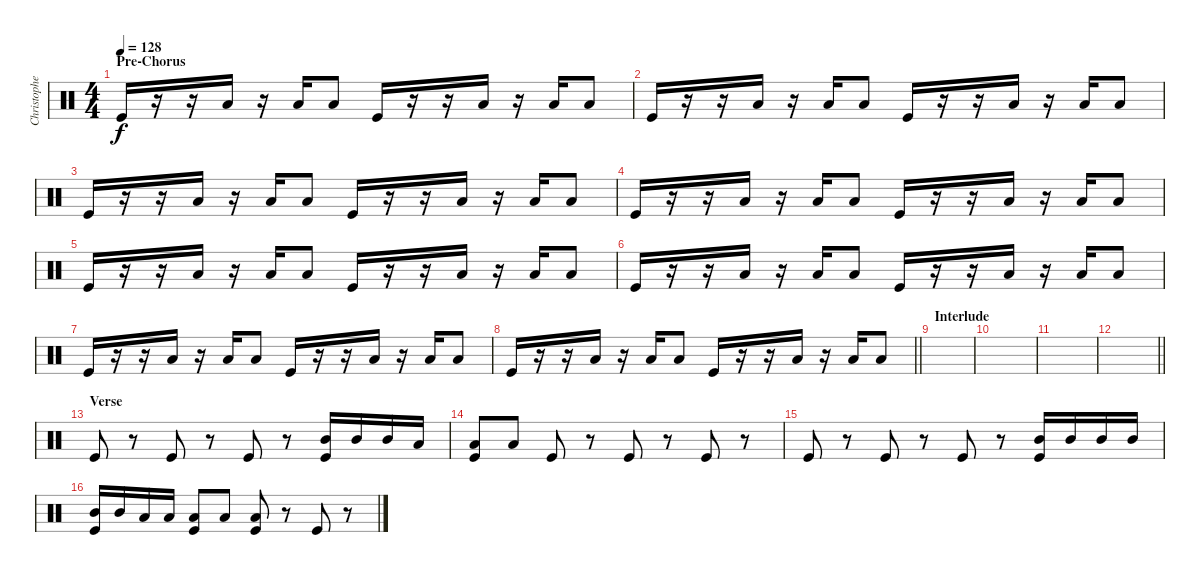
\track ("Christopher - Drums" "Christophe") {instrument percussion}
\staff {score}
\articulation defaults
\ts (4 4)
\section ("" "Pre-Chorus")
\tempo 128
\clef neutral
\ks c "Kick (hit)".16{dy f}
r.16 r.16 "Low Tom (hit)".16 r.16 "Low Tom (hit)".16 "Low Floor Tom (hit)".8 "Kick (hit)".16 r.16 r.16 "Low Tom (hit)".16 r.16 "Low Tom (hit)".16 "Low Floor Tom (hit)".8 |
"Kick (hit)".16 r.16 r.16 "Low Tom (hit)".16 r.16 "Low Tom (hit)".16 "Low Floor Tom (hit)".8 "Kick (hit)".16 r.16 r.16 "Low Tom (hit)".16 r.16 "Low Tom (hit)".16 "Low Floor Tom (hit)".8 |
"Kick (hit)".16 r.16 r.16 "Low Tom (hit)".16 r.16 "Low Tom (hit)".16 "Low Floor Tom (hit)".8 "Kick (hit)".16 r.16 r.16 "Low Tom (hit)".16 r.16 "Low Tom (hit)".16 "Low Floor Tom (hit)".8 |
"Kick (hit)".16 r.16 r.16 "Low Tom (hit)".16 r.16 "Low Tom (hit)".16 "Low Floor Tom (hit)".8 "Kick (hit)".16 r.16 r.16 "Low Tom (hit)".16 r.16 "Low Tom (hit)".16 "Low Floor Tom (hit)".8 |
"Kick (hit)".16 r.16 r.16 "Low Tom (hit)".16 r.16 "Low Tom (hit)".16 "Low Floor Tom (hit)".8 "Kick (hit)".16 r.16 r.16 "Low Tom (hit)".16 r.16 "Low Tom (hit)".16 "Low Floor Tom (hit)".8 |
"Kick (hit)".16 r.16 r.16 "Low Tom (hit)".16 r.16 "Low Tom (hit)".16 "Low Floor Tom (hit)".8 "Kick (hit)".16 r.16 r.16 "Low Tom (hit)".16 r.16 "Low Tom (hit)".16 "Low Floor Tom (hit)".8 |
"Kick (hit)".16 r.16 r.16 "Low Tom (hit)".16 r.16 "Low Tom (hit)".16 "Low Floor Tom (hit)".8 "Kick (hit)".16 r.16 r.16 "Low Tom (hit)".16 r.16 "Low Tom (hit)".16 "Low Floor Tom (hit)".8 |
\barLineRight lightlight "Kick (hit)".16
r.16 r.16 "Low Tom (hit)".16 r.16 "Low Tom (hit)".16 "Low Floor Tom (hit)".8 "Kick (hit)".16 r.16 r.16 "Low Tom (hit)".16 r.16 "Low Tom (hit)".16 "Low Floor Tom (hit)".8 |
\section ("" "Interlude")
|
|
|
\barLineRight lightlight
|
\section ("" "Verse")
"Kick (hit)".8 r.8 "Kick (hit)".8 r.8 "Kick (hit)".8 r.8 ("Mid Tom (hit)" "Kick (hit)").16 "Mid Tom (hit)".16 "Mid Tom (hit)".16 "Low Tom (hit)".16 |
("Low Floor Tom (hit)" "Kick (hit)").8 "Low Floor Tom (hit)".8 "Kick (hit)".8 r.8 "Kick (hit)".8 r.8 "Kick (hit)".8 r.8 |
"Kick (hit)".8 r.8 "Kick (hit)".8 r.8 "Kick (hit)".8 r.8 ("Mid Tom (hit)" "Kick (hit)").16 "Mid Tom (hit)".16 "Mid Tom (hit)".16 "Mid Tom (hit)".16 |
("Mid Tom (hit)" "Kick (hit)").16 "Mid Tom (hit)".16 "Low Tom (hit)".16 "Low Tom (hit)".16 ("Low Floor Tom (hit)" "Kick (hit)").8 "Low Floor Tom (hit)".8 ("Low Floor Tom (hit)" "Kick (hit)").8 r.8 "Kick (hit)".8 r.8
